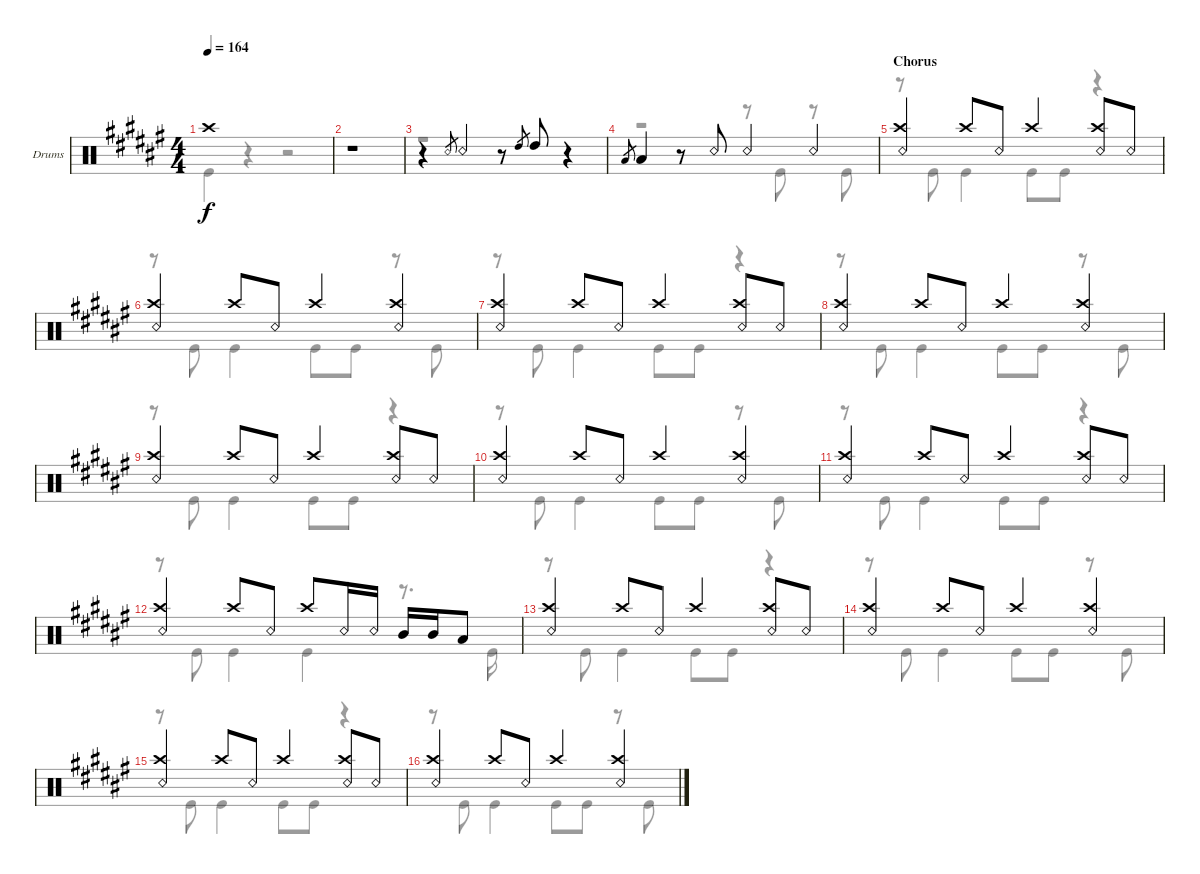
\defaultSystemsLayout 4
\bracketExtendMode groupsimilarinstruments
\firstSystemTrackNameOrientation horizontal
\otherSystemsTrackNameOrientation horizontal
\track ("Drums" "Drums") {instrument percussion}
\staff {score}
\articulation defaults
\voice
\ts (4 4)
\tempo 164
\clef neutral
\ks f# "Crash high (hit)".1{dy f}
|
r.1 |
r.4 "Snare (rim shot)".8{gr} "Snare (rim shot)".4 r.8 "High Tom (hit)".8{gr} "High Tom (hit)".8 r.4 |
"Low Tom (hit)".8{gr} "Low Tom (hit)".4 r.8 "Snare (rim shot)".8 "Snare (rim shot)".4 "Snare (rim shot)".4 |
\section ("" "Chorus")
("Snare (rim shot)" "Crash high (hit)").4 "Crash high (hit)".8 "Snare (rim shot)".8 "Crash high (hit)".4 ("Crash high (hit)" "Snare (rim shot)").8 "Snare (rim shot)".8 |
("Snare (rim shot)" "Crash high (hit)").4 "Crash high (hit)".8 "Snare (rim shot)".8 "Crash high (hit)".4 ("Snare (rim shot)" "Crash high (hit)").4 |
("Snare (rim shot)" "Crash high (hit)").4 "Crash high (hit)".8 "Snare (rim shot)".8 "Crash high (hit)".4 ("Crash high (hit)" "Snare (rim shot)").8 "Snare (rim shot)".8 |
("Snare (rim shot)" "Crash high (hit)").4 "Crash high (hit)".8 "Snare (rim shot)".8 "Crash high (hit)".4 ("Snare (rim shot)" "Crash high (hit)").4 |
("Snare (rim shot)" "Crash high (hit)").4 "Crash high (hit)".8 "Snare (rim shot)".8 "Crash high (hit)".4 ("Crash high (hit)" "Snare (rim shot)").8 "Snare (rim shot)".8 |
("Snare (rim shot)" "Crash high (hit)").4 "Crash high (hit)".8 "Snare (rim shot)".8 "Crash high (hit)".4 ("Snare (rim shot)" "Crash high (hit)").4 |
("Snare (rim shot)" "Crash high (hit)").4 "Crash high (hit)".8 "Snare (rim shot)".8 "Crash high (hit)".4 ("Crash high (hit)" "Snare (rim shot)").8 "Snare (rim shot)".8 |
("Snare (rim shot)" "Crash high (hit)").4 "Crash high (hit)".8 "Snare (rim shot)".8 "Crash high (hit)".8 "Snare (rim shot)".16 "Snare (rim shot)".16 "Mid Tom (hit)".16 "Mid Tom (hit)".16 "Low Tom (hit)".8 |
("Snare (rim shot)" "Crash high (hit)").4 "Crash high (hit)".8 "Snare (rim shot)".8 "Crash high (hit)".4 ("Crash high (hit)" "Snare (rim shot)").8 "Snare (rim shot)".8 |
("Snare (rim shot)" "Crash high (hit)").4 "Crash high (hit)".8 "Snare (rim shot)".8 "Crash high (hit)".4 ("Snare (rim shot)" "Crash high (hit)").4 |
("Snare (rim shot)" "Crash high (hit)").4 "Crash high (hit)".8 "Snare (rim shot)".8 "Crash high (hit)".4 ("Crash high (hit)" "Snare (rim shot)").8 "Snare (rim shot)".8 |
("Snare (rim shot)" "Crash high (hit)").4 "Crash high (hit)".8 "Snare (rim shot)".8 "Crash high (hit)".4 ("Snare (rim shot)" "Crash high (hit)").4
\voice
\clef neutral
\ottava regular
\simile none
\ks f# "Kick (hit)".4{dy f}
r.4 r.2 |
r.1 |
r.1 |
r.2 r.8 "Kick (hit)".8 r.8 "Kick (hit)".8 |
r.8 "Kick (hit)".8 "Kick (hit)".4 "Kick (hit)".8 "Kick (hit)".8 r.4 |
r.8 "Kick (hit)".8 "Kick (hit)".4 "Kick (hit)".8 "Kick (hit)".8 r.8 "Kick (hit)".8 |
r.8 "Kick (hit)".8 "Kick (hit)".4 "Kick (hit)".8 "Kick (hit)".8 r.4 |
r.8 "Kick (hit)".8 "Kick (hit)".4 "Kick (hit)".8 "Kick (hit)".8 r.8 "Kick (hit)".8 |
r.8 "Kick (hit)".8 "Kick (hit)".4 "Kick (hit)".8 "Kick (hit)".8 r.4 |
r.8 "Kick (hit)".8 "Kick (hit)".4 "Kick (hit)".8 "Kick (hit)".8 r.8 "Kick (hit)".8 |
r.8 "Kick (hit)".8 "Kick (hit)".4 "Kick (hit)".8 "Kick (hit)".8 r.4 |
r.8 "Kick (hit)".8 "Kick (hit)".4 "Kick (hit)".4 r.8{d} "Kick (hit)".16 |
r.8 "Kick (hit)".8 "Kick (hit)".4 "Kick (hit)".8 "Kick (hit)".8 r.4 |
r.8 "Kick (hit)".8 "Kick (hit)".4 "Kick (hit)".8 "Kick (hit)".8 r.8 "Kick (hit)".8 |
r.8 "Kick (hit)".8 "Kick (hit)".4 "Kick (hit)".8 "Kick (hit)".8 r.4 |
r.8 "Kick (hit)".8 "Kick (hit)".4 "Kick (hit)".8 "Kick (hit)".8 r.8 "Kick (hit)".8
